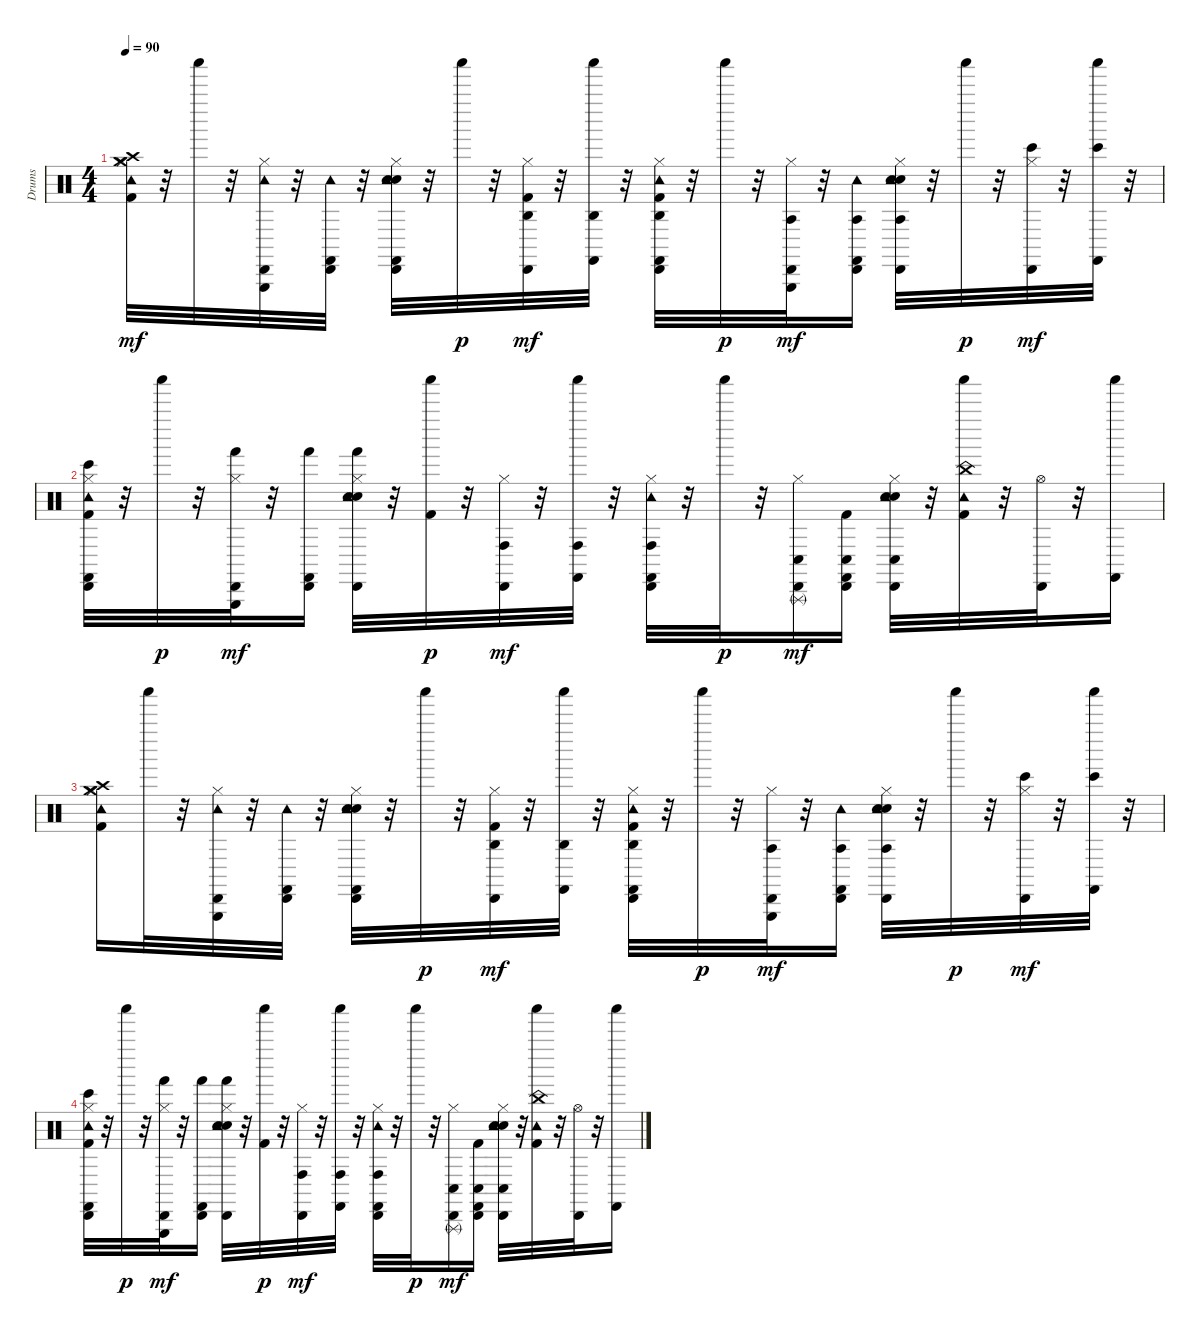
\track ("Drums" "Drums") {instrument percussion}
\staff {score}
\articulation defaults
\ts (4 4)
\tempo 90
\clef neutral
\ks c
("Hi-Hat (closed)" "Kick (hit) 2" "Tambourine (hit)" "Crash high (hit)" "Crash medium (hit)" "Hi-Hat (closed)").32{dy mf} r.32 "Shaker (hit)".32 r.32 ("Hi-Hat (closed)" "Tambourine (hit)" "Cabasa (hit)" "Triangle (hit)").32 r.32 ("Tambourine (hit)" "Cabasa (hit)" "Castanets (hit)").32 r.32 ("Electric Snare (hit)" "Hi-Hat (closed)" "Snare (hit) 2" "Tambourine (hit)" "Cabasa (hit)" "Castanets (hit)").32 r.32 "Shaker (hit)".32{dy p} r.32 ("Hi-Hat (closed)" "Kick (hit) 2" "Agogo high (hit)" "Cabasa (hit)").32{dy mf} r.32 ("Agogo high (hit)" "Shaker (hit)" "Castanets (hit)").32 r.32 ("Hi-Hat (closed)" "Kick (hit) 2" "Agogo high (hit)" "Cabasa (hit)" "Tambourine (hit)" "Castanets (hit)").32 r.32 "Shaker (hit)".32{dy p} r.32 ("Hi-Hat (closed)" "Agogo tow (hit)" "Cabasa (hit)" "Triangle (hit)").32{dy mf} r.32 ("Agogo tow (hit)" "Cabasa (hit)" "Tambourine (hit)" "Castanets (hit)").16 ("Electric Snare (hit)" "Hi-Hat (closed)" "Snare (hit) 2" "Agogo tow (hit)" "Tambourine (hit)" "Cabasa (hit)").32 r.32 "Shaker (hit)".32{dy p} r.32 ("Hi-Hat (closed)" "Bongo High (hit)" "Cabasa (hit)").32{dy mf} r.32 ("Bongo High (hit)" "Shaker (hit)" "Castanets (hit)").32 r.32 |
("Hi-Hat (closed)" "Kick (hit) 2" "Bongo High (hit)" "Cabasa (hit)" "Tambourine (hit)" "Castanets (hit)").32 r.32 "Shaker (hit)".32{dy p} r.32 ("Hi-Hat (closed)" "Hand (hit)" "Cabasa (hit)" "Triangle (hit)").32{dy mf} r.32 ("Hand (hit)" "Cabasa (hit)" "Castanets (hit)").16 ("Electric Snare (hit)" "Hi-Hat (closed)" "Snare (hit) 2" "Hand (hit)" "Cabasa (hit)" "Tambourine (hit)").32 r.32 ("Kick (hit) 2" "Shaker (hit)").32{dy p} r.32 ("Hi-Hat (closed)" "Conga high (hit)" "Cabasa (hit)").32{dy mf} r.32 ("Conga high (hit)" "Shaker (hit)" "Castanets (hit)").32 r.32 ("Hi-Hat (closed)" "Conga high (hit)" "Cabasa (hit)" "Tambourine (hit)" "Castanets (hit)").32 r.32 "Shaker (hit)".32{dy p} r.32 ("Hi-Hat (closed)" "Conga low (hit)" "Cabasa (hit)" "Triangle (rnute)").16{dy mf} ("Kick (hit) 2" "Conga low (hit)" "Cabasa (hit)" "Castanets (hit)").16 ("Electric Snare (hit)" "Hi-Hat (closed)" "Snare (hit) 2" "Conga low (hit)" "Cabasa (hit)" "Tambourine (hit)").32 r.32 ("Kick (hit) 2" "Tambourine (hit)" "Shaker (hit)" "China (hit)").32 r.32 ("Hi-Hat (open)" "Cabasa (hit)").32 r.32 ("Shaker (hit)" "Castanets (hit)").16 |
("Hi-Hat (closed)" "Kick (hit) 2" "Tambourine (hit)" "Crash high (hit)" "Crash medium (hit)" "Hi-Hat (closed)").16 "Shaker (hit)".32 r.32 ("Hi-Hat (closed)" "Tambourine (hit)" "Cabasa (hit)" "Triangle (hit)").32 r.32 ("Tambourine (hit)" "Cabasa (hit)" "Castanets (hit)").32 r.32 ("Electric Snare (hit)" "Hi-Hat (closed)" "Snare (hit) 2" "Tambourine (hit)" "Cabasa (hit)" "Castanets (hit)").32 r.32 "Shaker (hit)".32{dy p} r.32 ("Hi-Hat (closed)" "Kick (hit) 2" "Agogo high (hit)" "Cabasa (hit)").32{dy mf} r.32 ("Agogo high (hit)" "Shaker (hit)" "Castanets (hit)").32 r.32 ("Hi-Hat (closed)" "Kick (hit) 2" "Agogo high (hit)" "Cabasa (hit)" "Tambourine (hit)" "Castanets (hit)").32 r.32 "Shaker (hit)".32{dy p} r.32 ("Hi-Hat (closed)" "Agogo tow (hit)" "Cabasa (hit)" "Triangle (hit)").32{dy mf} r.32 ("Agogo tow (hit)" "Cabasa (hit)" "Tambourine (hit)" "Castanets (hit)").16 ("Electric Snare (hit)" "Hi-Hat (closed)" "Snare (hit) 2" "Agogo tow (hit)" "Tambourine (hit)" "Cabasa (hit)").32 r.32 "Shaker (hit)".32{dy p} r.32 ("Hi-Hat (closed)" "Bongo High (hit)" "Cabasa (hit)").32{dy mf} r.32 ("Bongo High (hit)" "Shaker (hit)" "Castanets (hit)").32 r.32 |
("Hi-Hat (closed)" "Kick (hit) 2" "Bongo High (hit)" "Cabasa (hit)" "Tambourine (hit)" "Castanets (hit)").32 r.32 "Shaker (hit)".32{dy p} r.32 ("Hi-Hat (closed)" "Hand (hit)" "Cabasa (hit)" "Triangle (hit)").32{dy mf} r.32 ("Hand (hit)" "Cabasa (hit)" "Castanets (hit)").16 ("Electric Snare (hit)" "Hi-Hat (closed)" "Snare (hit) 2" "Hand (hit)" "Cabasa (hit)" "Tambourine (hit)").32 r.32 ("Kick (hit) 2" "Shaker (hit)").32{dy p} r.32 ("Hi-Hat (closed)" "Conga high (hit)" "Cabasa (hit)").32{dy mf} r.32 ("Conga high (hit)" "Shaker (hit)" "Castanets (hit)").32 r.32 ("Hi-Hat (closed)" "Conga high (hit)" "Cabasa (hit)" "Tambourine (hit)" "Castanets (hit)").32 r.32 "Shaker (hit)".32{dy p} r.32 ("Hi-Hat (closed)" "Conga low (hit)" "Cabasa (hit)" "Triangle (rnute)").16{dy mf} ("Kick (hit) 2" "Conga low (hit)" "Cabasa (hit)" "Castanets (hit)").16 ("Electric Snare (hit)" "Hi-Hat (closed)" "Snare (hit) 2" "Conga low (hit)" "Cabasa (hit)" "Tambourine (hit)").32 r.32 ("Kick (hit) 2" "Tambourine (hit)" "Shaker (hit)" "China (hit)").32 r.32 ("Hi-Hat (open)" "Cabasa (hit)").32 r.32 ("Shaker (hit)" "Castanets (hit)").16
